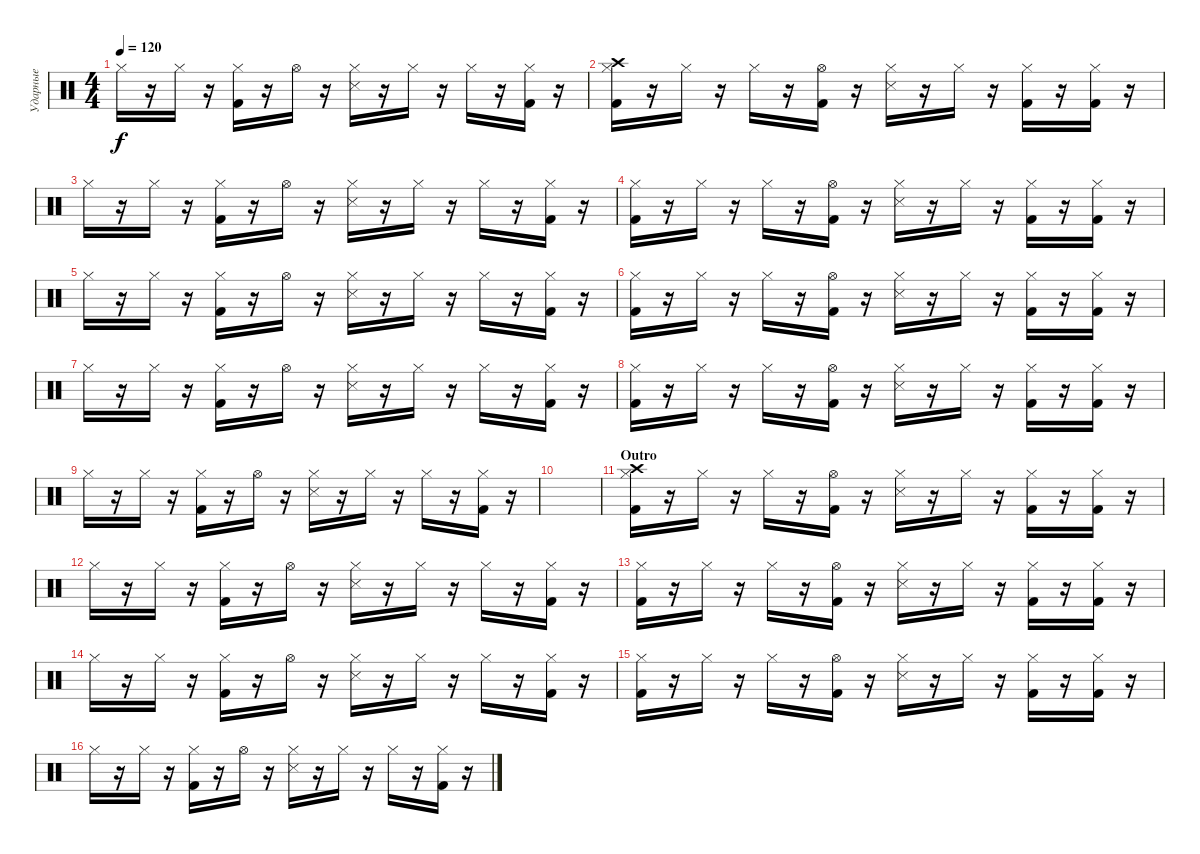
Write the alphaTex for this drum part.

\track ("Ударные" "Ударные") {instrument percussion}
\staff {score}
\articulation defaults
\ts (4 4)
\tempo 120
\clef neutral
\ks c "Hi-Hat (closed)".16{dy f}
r.16 "Hi-Hat (closed)".16 r.16 ("Hi-Hat (closed)" "Kick (hit) 2").16 r.16 "Hi-Hat (open)".16 r.16 ("Hi-Hat (closed)" "Metronome (hit)").16 r.16 "Hi-Hat (closed)".16 r.16 "Hi-Hat (closed)".16 r.16 ("Hi-Hat (closed)" "Kick (hit) 2").16 r.16 |
("Crash high (hit)" "Hi-Hat (closed)" "Kick (hit) 2").16 r.16 "Hi-Hat (closed)".16 r.16 "Hi-Hat (closed)".16 r.16 ("Hi-Hat (open)" "Kick (hit) 2").16 r.16 ("Hi-Hat (closed)" "Snare (side stick) 3").16 r.16 "Hi-Hat (closed)".16 r.16 ("Hi-Hat (closed)" "Kick (hit) 2").16 r.16 ("Hi-Hat (closed)" "Kick (hit) 2").16 r.16 |
"Hi-Hat (closed)".16 r.16 "Hi-Hat (closed)".16 r.16 ("Hi-Hat (closed)" "Kick (hit) 2").16 r.16 "Hi-Hat (open)".16 r.16 ("Hi-Hat (closed)" "Metronome (hit)").16 r.16 "Hi-Hat (closed)".16 r.16 "Hi-Hat (closed)".16 r.16 ("Hi-Hat (closed)" "Kick (hit) 2").16 r.16 |
("Hi-Hat (closed)" "Kick (hit) 2").16 r.16 "Hi-Hat (closed)".16 r.16 "Hi-Hat (closed)".16 r.16 ("Hi-Hat (open)" "Kick (hit) 2").16 r.16 ("Hi-Hat (closed)" "Snare (side stick) 3").16 r.16 "Hi-Hat (closed)".16 r.16 ("Hi-Hat (closed)" "Kick (hit) 2").16 r.16 ("Hi-Hat (closed)" "Kick (hit) 2").16 r.16 |
"Hi-Hat (closed)".16 r.16 "Hi-Hat (closed)".16 r.16 ("Hi-Hat (closed)" "Kick (hit) 2").16 r.16 "Hi-Hat (open)".16 r.16 ("Hi-Hat (closed)" "Metronome (hit)").16 r.16 "Hi-Hat (closed)".16 r.16 "Hi-Hat (closed)".16 r.16 ("Hi-Hat (closed)" "Kick (hit) 2").16 r.16 |
("Hi-Hat (closed)" "Kick (hit) 2").16 r.16 "Hi-Hat (closed)".16 r.16 "Hi-Hat (closed)".16 r.16 ("Hi-Hat (open)" "Kick (hit) 2").16 r.16 ("Hi-Hat (closed)" "Snare (side stick) 3").16 r.16 "Hi-Hat (closed)".16 r.16 ("Hi-Hat (closed)" "Kick (hit) 2").16 r.16 ("Hi-Hat (closed)" "Kick (hit) 2").16 r.16 |
"Hi-Hat (closed)".16 r.16 "Hi-Hat (closed)".16 r.16 ("Hi-Hat (closed)" "Kick (hit) 2").16 r.16 "Hi-Hat (open)".16 r.16 ("Hi-Hat (closed)" "Metronome (hit)").16 r.16 "Hi-Hat (closed)".16 r.16 "Hi-Hat (closed)".16 r.16 ("Hi-Hat (closed)" "Kick (hit) 2").16 r.16 |
("Hi-Hat (closed)" "Kick (hit) 2").16 r.16 "Hi-Hat (closed)".16 r.16 "Hi-Hat (closed)".16 r.16 ("Hi-Hat (open)" "Kick (hit) 2").16 r.16 ("Hi-Hat (closed)" "Snare (side stick) 3").16 r.16 "Hi-Hat (closed)".16 r.16 ("Hi-Hat (closed)" "Kick (hit) 2").16 r.16 ("Hi-Hat (closed)" "Kick (hit) 2").16 r.16 |
"Hi-Hat (closed)".16 r.16 "Hi-Hat (closed)".16 r.16 ("Hi-Hat (closed)" "Kick (hit) 2").16 r.16 "Hi-Hat (open)".16 r.16 ("Hi-Hat (closed)" "Metronome (hit)").16 r.16 "Hi-Hat (closed)".16 r.16 "Hi-Hat (closed)".16 r.16 ("Hi-Hat (closed)" "Kick (hit) 2").16 r.16 |
|
\section ("" "Outro")
("Crash high (hit)" "Hi-Hat (closed)" "Kick (hit) 2").16 r.16 "Hi-Hat (closed)".16 r.16 "Hi-Hat (closed)".16 r.16 ("Hi-Hat (open)" "Kick (hit) 2").16 r.16 ("Hi-Hat (closed)" "Snare (side stick) 3").16 r.16 "Hi-Hat (closed)".16 r.16 ("Hi-Hat (closed)" "Kick (hit) 2").16 r.16 ("Hi-Hat (closed)" "Kick (hit) 2").16 r.16 |
"Hi-Hat (closed)".16 r.16 "Hi-Hat (closed)".16 r.16 ("Hi-Hat (closed)" "Kick (hit) 2").16 r.16 "Hi-Hat (open)".16 r.16 ("Hi-Hat (closed)" "Metronome (hit)").16 r.16 "Hi-Hat (closed)".16 r.16 "Hi-Hat (closed)".16 r.16 ("Hi-Hat (closed)" "Kick (hit) 2").16 r.16 |
("Hi-Hat (closed)" "Kick (hit) 2").16 r.16 "Hi-Hat (closed)".16 r.16 "Hi-Hat (closed)".16 r.16 ("Hi-Hat (open)" "Kick (hit) 2").16 r.16 ("Hi-Hat (closed)" "Snare (side stick) 3").16 r.16 "Hi-Hat (closed)".16 r.16 ("Hi-Hat (closed)" "Kick (hit) 2").16 r.16 ("Hi-Hat (closed)" "Kick (hit) 2").16 r.16 |
"Hi-Hat (closed)".16 r.16 "Hi-Hat (closed)".16 r.16 ("Hi-Hat (closed)" "Kick (hit) 2").16 r.16 "Hi-Hat (open)".16 r.16 ("Hi-Hat (closed)" "Metronome (hit)").16 r.16 "Hi-Hat (closed)".16 r.16 "Hi-Hat (closed)".16 r.16 ("Hi-Hat (closed)" "Kick (hit) 2").16 r.16 |
("Hi-Hat (closed)" "Kick (hit) 2").16 r.16 "Hi-Hat (closed)".16 r.16 "Hi-Hat (closed)".16 r.16 ("Hi-Hat (open)" "Kick (hit) 2").16 r.16 ("Hi-Hat (closed)" "Snare (side stick) 3").16 r.16 "Hi-Hat (closed)".16 r.16 ("Hi-Hat (closed)" "Kick (hit) 2").16 r.16 ("Hi-Hat (closed)" "Kick (hit) 2").16 r.16 |
"Hi-Hat (closed)".16 r.16 "Hi-Hat (closed)".16 r.16 ("Hi-Hat (closed)" "Kick (hit) 2").16 r.16 "Hi-Hat (open)".16 r.16 ("Hi-Hat (closed)" "Metronome (hit)").16 r.16 "Hi-Hat (closed)".16 r.16 "Hi-Hat (closed)".16 r.16 ("Hi-Hat (closed)" "Kick (hit) 2").16 r.16
